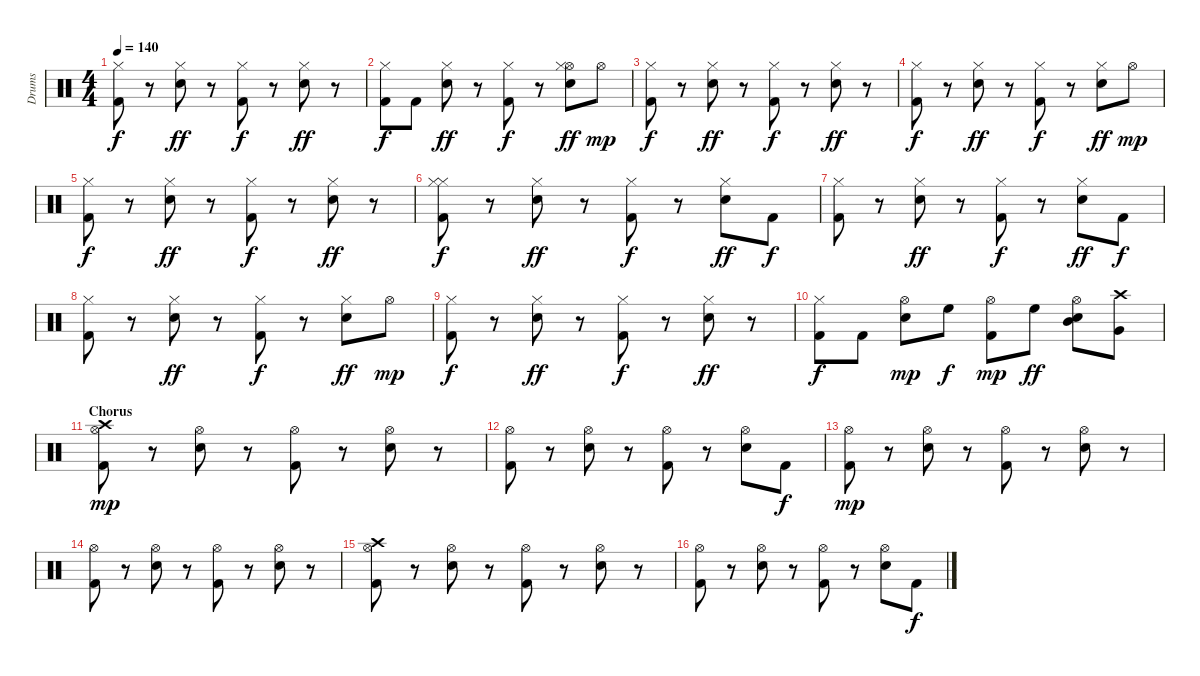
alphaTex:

\track ("Drums" "Drums") {instrument percussion}
\staff {score}
\articulation defaults
\ts (4 4)
\tempo 140
\clef neutral
\ks c
("Kick (hit) 2" "Hi-Hat (closed)").8{dy f} r.8 ("Snare (hit) 2" "Hi-Hat (closed)").8{dy ff} r.8 ("Kick (hit) 2" "Hi-Hat (closed)").8{dy f} r.8 ("Hi-Hat (closed)" "Snare (hit) 2").8{dy ff} r.8 |
("Kick (hit) 2" "Hi-Hat (closed)").8{dy f} "Kick (hit) 2".8 ("Snare (hit) 2" "Hi-Hat (closed)").8{dy ff} r.8 ("Kick (hit) 2" "Hi-Hat (closed)").8{dy f} r.8 ("Hi-Hat (open)" "Snare (hit) 2" "Hi-Hat (closed)").8{dy ff} "Hi-Hat (open)".8{dy mp} |
("Hi-Hat (closed)" "Kick (hit) 2").8{dy f} r.8 ("Hi-Hat (closed)" "Snare (hit) 2").8{dy ff} r.8 ("Hi-Hat (closed)" "Kick (hit) 2").8{dy f} r.8 ("Hi-Hat (closed)" "Snare (hit) 2").8{dy ff} r.8 |
("Kick (hit) 2" "Hi-Hat (closed)").8{dy f} r.8 ("Snare (hit) 2" "Hi-Hat (closed)").8{dy ff} r.8 ("Hi-Hat (closed)" "Kick (hit) 2").8{dy f} r.8 ("Hi-Hat (closed)" "Snare (hit) 2").8{dy ff} "Hi-Hat (open)".8{dy mp} |
("Hi-Hat (closed)" "Kick (hit) 2").8{dy f} r.8 ("Snare (hit) 2" "Hi-Hat (closed)").8{dy ff} r.8 ("Hi-Hat (closed)" "Kick (hit) 2").8{dy f} r.8 ("Snare (hit) 2" "Hi-Hat (closed)").8{dy ff} r.8 |
("Hi-Hat (closed)" "Hi-Hat (closed)" "Kick (hit) 2").8{dy f} r.8 ("Hi-Hat (closed)" "Snare (hit) 2").8{dy ff} r.8 ("Kick (hit) 2" "Hi-Hat (closed)").8{dy f} r.8 ("Snare (hit) 2" "Hi-Hat (closed)").8{dy ff} "Kick (hit) 2".8{dy f} |
("Hi-Hat (closed)" "Kick (hit) 2").8 r.8 ("Snare (hit) 2" "Hi-Hat (closed)").8{dy ff} r.8 ("Hi-Hat (closed)" "Kick (hit) 2").8{dy f} r.8 ("Snare (hit) 2" "Hi-Hat (closed)").8{dy ff} "Kick (hit) 2".8{dy f} |
("Kick (hit) 2" "Hi-Hat (closed)").8 r.8 ("Snare (hit) 2" "Hi-Hat (closed)").8{dy ff} r.8 ("Kick (hit) 2" "Hi-Hat (closed)").8{dy f} r.8 ("Snare (hit) 2" "Hi-Hat (closed)").8{dy ff} "Hi-Hat (open)".8{dy mp} |
("Hi-Hat (closed)" "Kick (hit) 2").8{dy f} r.8 ("Hi-Hat (closed)" "Snare (hit) 2").8{dy ff} r.8 ("Hi-Hat (closed)" "Kick (hit) 2").8{dy f} r.8 ("Snare (hit) 2" "Hi-Hat (closed)").8{dy ff} r.8 |
("Hi-Hat (closed)" "Kick (hit) 2").8{dy f} "Kick (hit) 2".8 ("Snare (hit) 2" "Hi-Hat (open)").8{dy mp} "High Floor Tom (hit)".8{dy f} ("Kick (hit) 2" "Hi-Hat (open)").8{dy mp} "High Floor Tom (hit)".8{dy ff} ("Hi-Hat (open)" "Snare (hit) 2" "Mid Tom (hit)").8 ("Crash high (hit)" "Very Low Tom (hit)").8 |
\section ("" "Chorus")
("Hi-Hat (open)" "Crash high (hit)" "Kick (hit) 2").8{dy mp} r.8 ("Snare (hit) 2" "Hi-Hat (open)").8 r.8 ("Kick (hit) 2" "Hi-Hat (open)").8 r.8 ("Snare (hit) 2" "Hi-Hat (open)").8 r.8 |
("Kick (hit) 2" "Hi-Hat (open)").8 r.8 ("Snare (hit) 2" "Hi-Hat (open)").8 r.8 ("Kick (hit) 2" "Hi-Hat (open)").8 r.8 ("Snare (hit) 2" "Hi-Hat (open)").8 "Kick (hit) 2".8{dy f} |
("Hi-Hat (open)" "Kick (hit) 2").8{dy mp} r.8 ("Snare (hit) 2" "Hi-Hat (open)").8 r.8 ("Kick (hit) 2" "Hi-Hat (open)").8 r.8 ("Snare (hit) 2" "Hi-Hat (open)").8 r.8 |
("Kick (hit) 2" "Hi-Hat (open)").8 r.8 ("Snare (hit) 2" "Hi-Hat (open)").8 r.8 ("Hi-Hat (open)" "Kick (hit) 2").8 r.8 ("Snare (hit) 2" "Hi-Hat (open)").8 r.8 |
("Hi-Hat (open)" "Crash high (hit)" "Kick (hit) 2").8 r.8 ("Snare (hit) 2" "Hi-Hat (open)").8 r.8 ("Kick (hit) 2" "Hi-Hat (open)").8 r.8 ("Snare (hit) 2" "Hi-Hat (open)").8 r.8 |
("Kick (hit) 2" "Hi-Hat (open)").8 r.8 ("Snare (hit) 2" "Hi-Hat (open)").8 r.8 ("Kick (hit) 2" "Hi-Hat (open)").8 r.8 ("Snare (hit) 2" "Hi-Hat (open)").8 "Kick (hit) 2".8{dy f}
